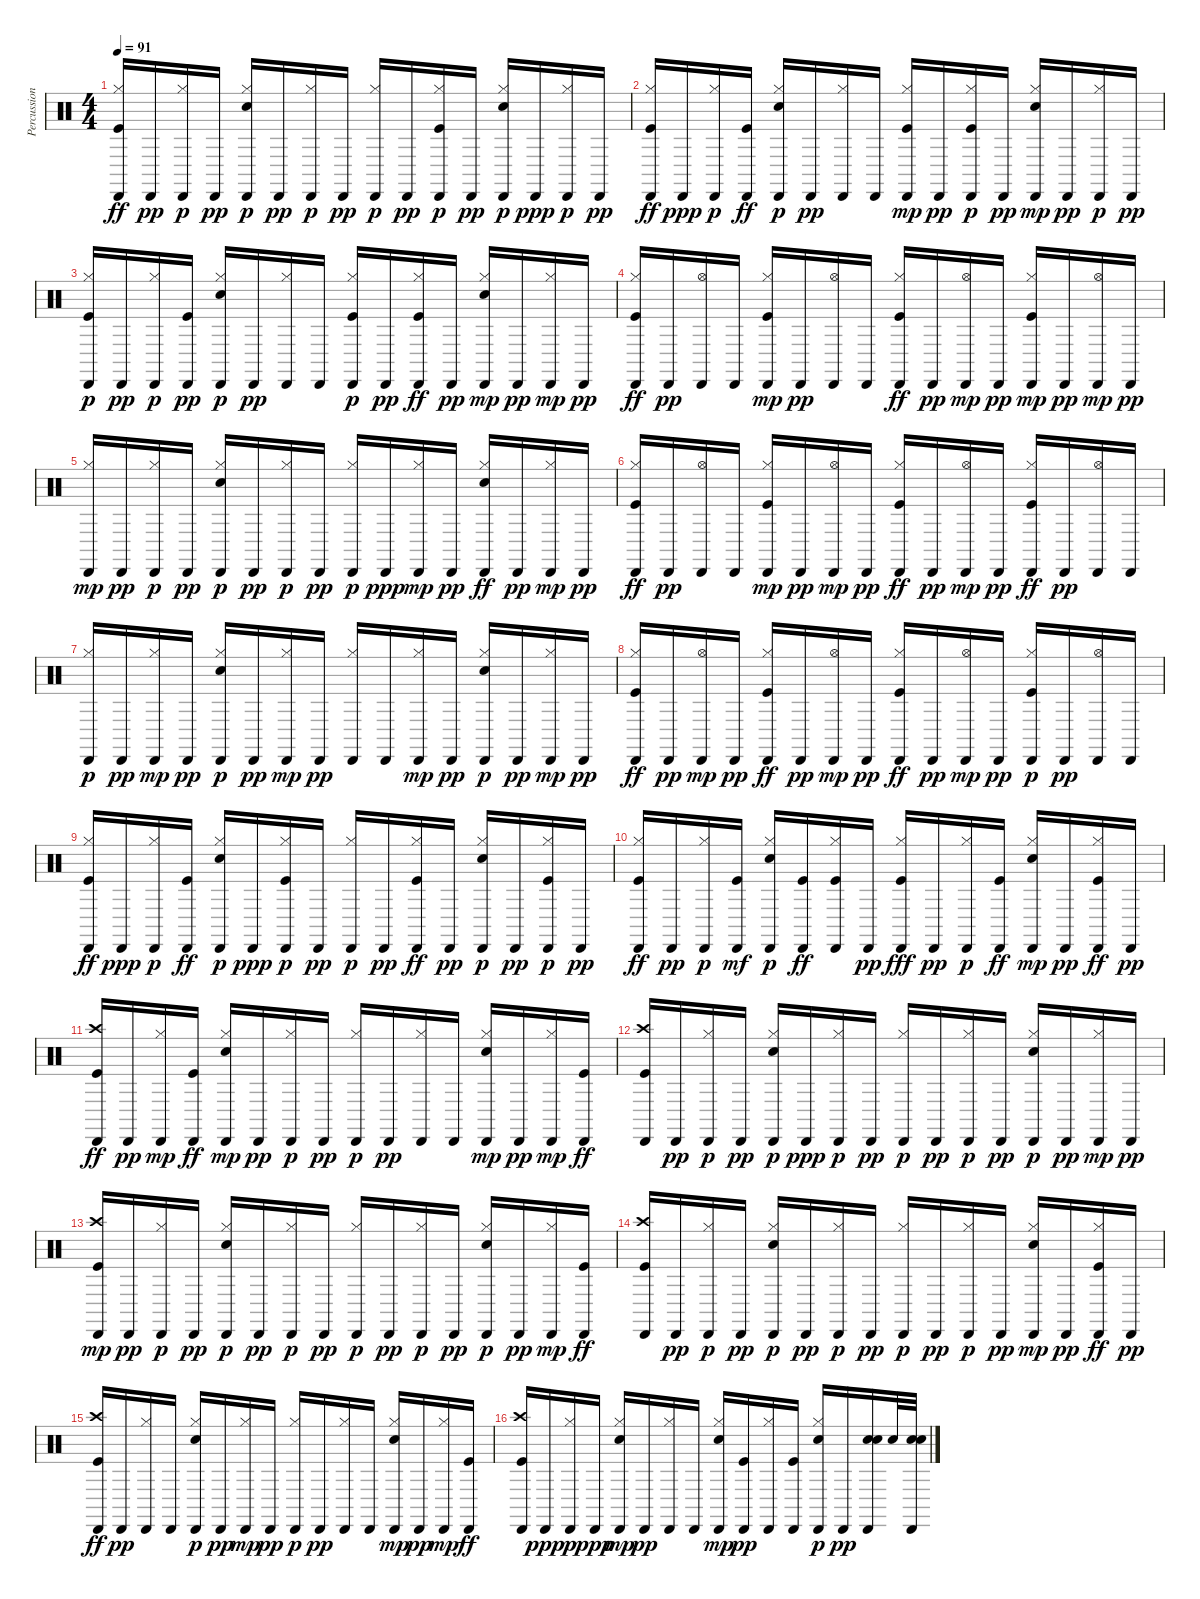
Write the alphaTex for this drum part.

\track ("Percussion" "Percussion") {instrument percussion}
\staff {score}
\articulation defaults
\ts (4 4)
\tempo 91
\clef neutral
\ks c
("Hi-Hat (closed)" "Cabasa (hit)" "Kick (hit)").16{dy ff} "Cabasa (hit)".16{dy pp} ("Cabasa (hit)" "Hi-Hat (closed)").16{dy p} "Cabasa (hit)".16{dy pp} ("Cabasa (hit)" "Hi-Hat (closed)" "Snare (hit) 2").16{dy p} "Cabasa (hit)".16{dy pp} ("Cabasa (hit)" "Hi-Hat (closed)").16{dy p} "Cabasa (hit)".16{dy pp} ("Cabasa (hit)" "Hi-Hat (closed)").16{dy p} "Cabasa (hit)".16{dy pp} ("Cabasa (hit)" "Kick (hit)" "Hi-Hat (closed)").16{dy p} "Cabasa (hit)".16{dy pp} ("Cabasa (hit)" "Hi-Hat (closed)" "Snare (hit) 2").16{dy p} "Cabasa (hit)".16{dy ppp} ("Cabasa (hit)" "Hi-Hat (closed)").16{dy p} "Cabasa (hit)".16{dy pp} |
("Cabasa (hit)" "Hi-Hat (closed)" "Kick (hit)").16{dy ff} "Cabasa (hit)".16{dy ppp} ("Cabasa (hit)" "Hi-Hat (closed)").16{dy p} ("Cabasa (hit)" "Kick (hit)").16{dy ff} ("Hi-Hat (closed)" "Cabasa (hit)" "Snare (hit) 2").16{dy p} "Cabasa (hit)".16{dy pp} ("Hi-Hat (closed)" "Cabasa (hit)").16 "Cabasa (hit)".16 ("Kick (hit)" "Cabasa (hit)" "Hi-Hat (closed)").16{dy mp} "Cabasa (hit)".16{dy pp} ("Cabasa (hit)" "Kick (hit)" "Hi-Hat (closed)").16{dy p} "Cabasa (hit)".16{dy pp} ("Cabasa (hit)" "Hi-Hat (closed)" "Snare (hit) 2").16{dy mp} "Cabasa (hit)".16{dy pp} ("Cabasa (hit)" "Hi-Hat (closed)").16{dy p} "Cabasa (hit)".16{dy pp} |
("Cabasa (hit)" "Kick (hit)" "Hi-Hat (closed)").16{dy p} "Cabasa (hit)".16{dy pp} ("Cabasa (hit)" "Hi-Hat (closed)").16{dy p} ("Kick (hit)" "Cabasa (hit)").16{dy pp} ("Snare (hit) 2" "Hi-Hat (closed)" "Cabasa (hit)").16{dy p} "Cabasa (hit)".16{dy pp} ("Hi-Hat (closed)" "Cabasa (hit)").16 "Cabasa (hit)".16 ("Hi-Hat (closed)" "Kick (hit)" "Cabasa (hit)").16{dy p} "Cabasa (hit)".16{dy pp} ("Cabasa (hit)" "Hi-Hat (closed)" "Kick (hit)").16{dy ff} "Cabasa (hit)".16{dy pp} ("Cabasa (hit)" "Snare (hit) 2" "Hi-Hat (closed)").16{dy mp} "Cabasa (hit)".16{dy pp} ("Cabasa (hit)" "Hi-Hat (closed)").16{dy mp} "Cabasa (hit)".16{dy pp} |
("Cabasa (hit)" "Hi-Hat (closed)" "Kick (hit)").16{dy ff} "Cabasa (hit)".16{dy pp} ("Hi-Hat (open)" "Cabasa (hit)").16 "Cabasa (hit)".16 ("Cabasa (hit)" "Kick (hit)" "Hi-Hat (closed)").16{dy mp} "Cabasa (hit)".16{dy pp} ("Hi-Hat (open)" "Cabasa (hit)").16 "Cabasa (hit)".16 ("Cabasa (hit)" "Hi-Hat (closed)" "Kick (hit)").16{dy ff} "Cabasa (hit)".16{dy pp} ("Cabasa (hit)" "Hi-Hat (open)").16{dy mp} "Cabasa (hit)".16{dy pp} ("Cabasa (hit)" "Kick (hit)" "Hi-Hat (closed)").16{dy mp} "Cabasa (hit)".16{dy pp} ("Cabasa (hit)" "Hi-Hat (open)").16{dy mp} "Cabasa (hit)".16{dy pp} |
("Cabasa (hit)" "Hi-Hat (closed)").16{dy mp} "Cabasa (hit)".16{dy pp} ("Cabasa (hit)" "Hi-Hat (closed)").16{dy p} "Cabasa (hit)".16{dy pp} ("Cabasa (hit)" "Snare (hit) 2" "Hi-Hat (closed)").16{dy p} "Cabasa (hit)".16{dy pp} ("Cabasa (hit)" "Hi-Hat (closed)").16{dy p} "Cabasa (hit)".16{dy pp} ("Cabasa (hit)" "Hi-Hat (closed)").16{dy p} "Cabasa (hit)".16{dy ppp} ("Cabasa (hit)" "Hi-Hat (closed)").16{dy mp} "Cabasa (hit)".16{dy pp} ("Cabasa (hit)" "Hi-Hat (closed)" "Snare (hit) 2").16{dy ff} "Cabasa (hit)".16{dy pp} ("Cabasa (hit)" "Hi-Hat (closed)").16{dy mp} "Cabasa (hit)".16{dy pp} |
("Cabasa (hit)" "Hi-Hat (closed)" "Kick (hit)").16{dy ff} "Cabasa (hit)".16{dy pp} ("Hi-Hat (open)" "Cabasa (hit)").16 "Cabasa (hit)".16 ("Kick (hit)" "Cabasa (hit)" "Hi-Hat (closed)").16{dy mp} "Cabasa (hit)".16{dy pp} ("Cabasa (hit)" "Hi-Hat (open)").16{dy mp} "Cabasa (hit)".16{dy pp} ("Cabasa (hit)" "Hi-Hat (closed)" "Kick (hit)").16{dy ff} "Cabasa (hit)".16{dy pp} ("Cabasa (hit)" "Hi-Hat (open)").16{dy mp} "Cabasa (hit)".16{dy pp} ("Cabasa (hit)" "Hi-Hat (closed)" "Kick (hit)").16{dy ff} "Cabasa (hit)".16{dy pp} ("Hi-Hat (open)" "Cabasa (hit)").16 "Cabasa (hit)".16 |
("Hi-Hat (closed)" "Cabasa (hit)").16{dy p} "Cabasa (hit)".16{dy pp} ("Cabasa (hit)" "Hi-Hat (closed)").16{dy mp} "Cabasa (hit)".16{dy pp} ("Cabasa (hit)" "Hi-Hat (closed)" "Snare (hit) 2").16{dy p} "Cabasa (hit)".16{dy pp} ("Cabasa (hit)" "Hi-Hat (closed)").16{dy mp} "Cabasa (hit)".16{dy pp} ("Cabasa (hit)" "Hi-Hat (closed)").16 "Cabasa (hit)".16 ("Cabasa (hit)" "Hi-Hat (closed)").16{dy mp} "Cabasa (hit)".16{dy pp} ("Cabasa (hit)" "Snare (hit) 2" "Hi-Hat (closed)").16{dy p} "Cabasa (hit)".16{dy pp} ("Cabasa (hit)" "Hi-Hat (closed)").16{dy mp} "Cabasa (hit)".16{dy pp} |
("Hi-Hat (closed)" "Cabasa (hit)" "Kick (hit)").16{dy ff} "Cabasa (hit)".16{dy pp} ("Cabasa (hit)" "Hi-Hat (open)").16{dy mp} "Cabasa (hit)".16{dy pp} ("Cabasa (hit)" "Hi-Hat (closed)" "Kick (hit)").16{dy ff} "Cabasa (hit)".16{dy pp} ("Cabasa (hit)" "Hi-Hat (open)").16{dy mp} "Cabasa (hit)".16{dy pp} ("Cabasa (hit)" "Hi-Hat (closed)" "Kick (hit)").16{dy ff} "Cabasa (hit)".16{dy pp} ("Cabasa (hit)" "Hi-Hat (open)").16{dy mp} "Cabasa (hit)".16{dy pp} ("Hi-Hat (closed)" "Kick (hit)" "Cabasa (hit)").16{dy p} "Cabasa (hit)".16{dy pp} ("Hi-Hat (open)" "Cabasa (hit)").16 "Cabasa (hit)".16 |
("Cabasa (hit)" "Hi-Hat (closed)" "Kick (hit)").16{dy ff} "Cabasa (hit)".16{dy ppp} ("Cabasa (hit)" "Hi-Hat (closed)").16{dy p} ("Cabasa (hit)" "Kick (hit)").16{dy ff} ("Cabasa (hit)" "Hi-Hat (closed)" "Snare (hit) 2").16{dy p} "Cabasa (hit)".16{dy ppp} ("Cabasa (hit)" "Hi-Hat (closed)" "Kick (hit)").16{dy p} "Cabasa (hit)".16{dy pp} ("Cabasa (hit)" "Hi-Hat (closed)").16{dy p} "Cabasa (hit)".16{dy pp} ("Cabasa (hit)" "Hi-Hat (closed)" "Kick (hit)").16{dy ff} "Cabasa (hit)".16{dy pp} ("Cabasa (hit)" "Hi-Hat (closed)" "Snare (hit) 2").16{dy p} "Cabasa (hit)".16{dy pp} ("Cabasa (hit)" "Kick (hit)" "Hi-Hat (closed)").16{dy p} "Cabasa (hit)".16{dy pp} |
("Hi-Hat (closed)" "Cabasa (hit)" "Kick (hit)").16{dy ff} "Cabasa (hit)".16{dy pp} ("Cabasa (hit)" "Hi-Hat (closed)").16{dy p} ("Cabasa (hit)" "Kick (hit)").16{dy mf} ("Cabasa (hit)" "Hi-Hat (closed)" "Snare (hit) 2").16{dy p} ("Cabasa (hit)" "Kick (hit)").16{dy ff} ("Cabasa (hit)" "Hi-Hat (closed)" "Kick (hit)").16 "Cabasa (hit)".16{dy pp} ("Cabasa (hit)" "Hi-Hat (closed)" "Kick (hit)").16{dy fff} "Cabasa (hit)".16{dy pp} ("Cabasa (hit)" "Hi-Hat (closed)").16{dy p} ("Cabasa (hit)" "Kick (hit)").16{dy ff} ("Cabasa (hit)" "Hi-Hat (closed)" "Snare (hit) 2").16{dy mp} "Cabasa (hit)".16{dy pp} ("Cabasa (hit)" "Hi-Hat (closed)" "Kick (hit)").16{dy ff} "Cabasa (hit)".16{dy pp} |
("Cabasa (hit)" "Crash high (hit)" "Kick (hit)").16{dy ff} "Cabasa (hit)".16{dy pp} ("Cabasa (hit)" "Hi-Hat (closed)").16{dy mp} ("Cabasa (hit)" "Kick (hit)").16{dy ff} ("Cabasa (hit)" "Hi-Hat (closed)" "Snare (hit) 2").16{dy mp} "Cabasa (hit)".16{dy pp} ("Cabasa (hit)" "Hi-Hat (closed)").16{dy p} "Cabasa (hit)".16{dy pp} ("Cabasa (hit)" "Hi-Hat (closed)").16{dy p} "Cabasa (hit)".16{dy pp} ("Hi-Hat (closed)" "Cabasa (hit)").16 "Cabasa (hit)".16 ("Cabasa (hit)" "Hi-Hat (closed)" "Snare (hit) 2").16{dy mp} "Cabasa (hit)".16{dy pp} ("Cabasa (hit)" "Hi-Hat (closed)").16{dy mp} ("Cabasa (hit)" "Kick (hit)").16{dy ff} |
("Crash high (hit)" "Cabasa (hit)" "Kick (hit)").16 "Cabasa (hit)".16{dy pp} ("Cabasa (hit)" "Hi-Hat (closed)").16{dy p} "Cabasa (hit)".16{dy pp} ("Cabasa (hit)" "Hi-Hat (closed)" "Snare (hit) 2").16{dy p} "Cabasa (hit)".16{dy ppp} ("Cabasa (hit)" "Hi-Hat (closed)").16{dy p} "Cabasa (hit)".16{dy pp} ("Hi-Hat (closed)" "Cabasa (hit)").16{dy p} "Cabasa (hit)".16{dy pp} ("Cabasa (hit)" "Hi-Hat (closed)").16{dy p} "Cabasa (hit)".16{dy pp} ("Cabasa (hit)" "Hi-Hat (closed)" "Snare (hit) 2").16{dy p} "Cabasa (hit)".16{dy pp} ("Cabasa (hit)" "Hi-Hat (closed)").16{dy mp} "Cabasa (hit)".16{dy pp} |
("Cabasa (hit)" "Kick (hit)" "Crash high (hit)").16{dy mp} "Cabasa (hit)".16{dy pp} ("Cabasa (hit)" "Hi-Hat (closed)").16{dy p} "Cabasa (hit)".16{dy pp} ("Cabasa (hit)" "Hi-Hat (closed)" "Snare (hit) 2").16{dy p} "Cabasa (hit)".16{dy pp} ("Cabasa (hit)" "Hi-Hat (closed)").16{dy p} "Cabasa (hit)".16{dy pp} ("Cabasa (hit)" "Hi-Hat (closed)").16{dy p} "Cabasa (hit)".16{dy pp} ("Cabasa (hit)" "Hi-Hat (closed)").16{dy p} "Cabasa (hit)".16{dy pp} ("Cabasa (hit)" "Hi-Hat (closed)" "Snare (hit) 2").16{dy p} "Cabasa (hit)".16{dy pp} ("Cabasa (hit)" "Hi-Hat (closed)").16{dy mp} ("Cabasa (hit)" "Kick (hit)").16{dy ff} |
("Cabasa (hit)" "Crash high (hit)" "Kick (hit)").16 "Cabasa (hit)".16{dy pp} ("Cabasa (hit)" "Hi-Hat (closed)").16{dy p} "Cabasa (hit)".16{dy pp} ("Cabasa (hit)" "Snare (hit) 2" "Hi-Hat (closed)").16{dy p} "Cabasa (hit)".16{dy pp} ("Cabasa (hit)" "Hi-Hat (closed)").16{dy p} "Cabasa (hit)".16{dy pp} ("Cabasa (hit)" "Hi-Hat (closed)").16{dy p} "Cabasa (hit)".16{dy pp} ("Cabasa (hit)" "Hi-Hat (closed)").16{dy p} "Cabasa (hit)".16{dy pp} ("Cabasa (hit)" "Hi-Hat (closed)" "Snare (hit) 2").16{dy mp} "Cabasa (hit)".16{dy pp} ("Cabasa (hit)" "Hi-Hat (closed)" "Kick (hit)").16{dy ff} "Cabasa (hit)".16{dy pp} |
("Cabasa (hit)" "Crash high (hit)" "Kick (hit)").16{dy ff} "Cabasa (hit)".16{dy pp} ("Hi-Hat (closed)" "Cabasa (hit)").16 "Cabasa (hit)".16 ("Hi-Hat (closed)" "Cabasa (hit)" "Snare (hit) 2").16{dy p} "Cabasa (hit)".16{dy pp} ("Cabasa (hit)" "Hi-Hat (closed)").16{dy mp} "Cabasa (hit)".16{dy pp} ("Hi-Hat (closed)" "Cabasa (hit)").16{dy p} "Cabasa (hit)".16{dy pp} ("Hi-Hat (closed)" "Cabasa (hit)").16 "Cabasa (hit)".16 ("Cabasa (hit)" "Hi-Hat (closed)" "Snare (hit) 2").16{dy mp} "Cabasa (hit)".16{dy pp} ("Cabasa (hit)" "Hi-Hat (closed)").16{dy mp} ("Cabasa (hit)" "Kick (hit)").16{dy ff} |
("Crash high (hit)" "Cabasa (hit)" "Kick (hit)").16 "Cabasa (hit)".16{dy ppp} ("Cabasa (hit)" "Hi-Hat (closed)").16{dy p} "Cabasa (hit)".16{dy ppp} ("Cabasa (hit)" "Hi-Hat (closed)" "Snare (hit) 2").16{dy mp} "Cabasa (hit)".16{dy pp} ("Hi-Hat (closed)" "Cabasa (hit)").16 "Cabasa (hit)".16 ("Snare (hit) 2" "Cabasa (hit)" "Hi-Hat (closed)").16{dy mp} ("Kick (hit)" "Cabasa (hit)").16{dy pp} ("Hi-Hat (closed)" "Cabasa (hit)").16 ("Kick (hit)" "Cabasa (hit)").16 ("Snare (hit) 2" "Hi-Hat (closed)" "Cabasa (hit)").16{dy p} "Cabasa (hit)".16{dy pp} ("Snare (hit) 2" "Cabasa (hit)" "Snare (hit) 2").16 "Snare (hit) 2".32 ("Snare (hit) 2" "Cabasa (hit)" "Snare (hit) 2").32
